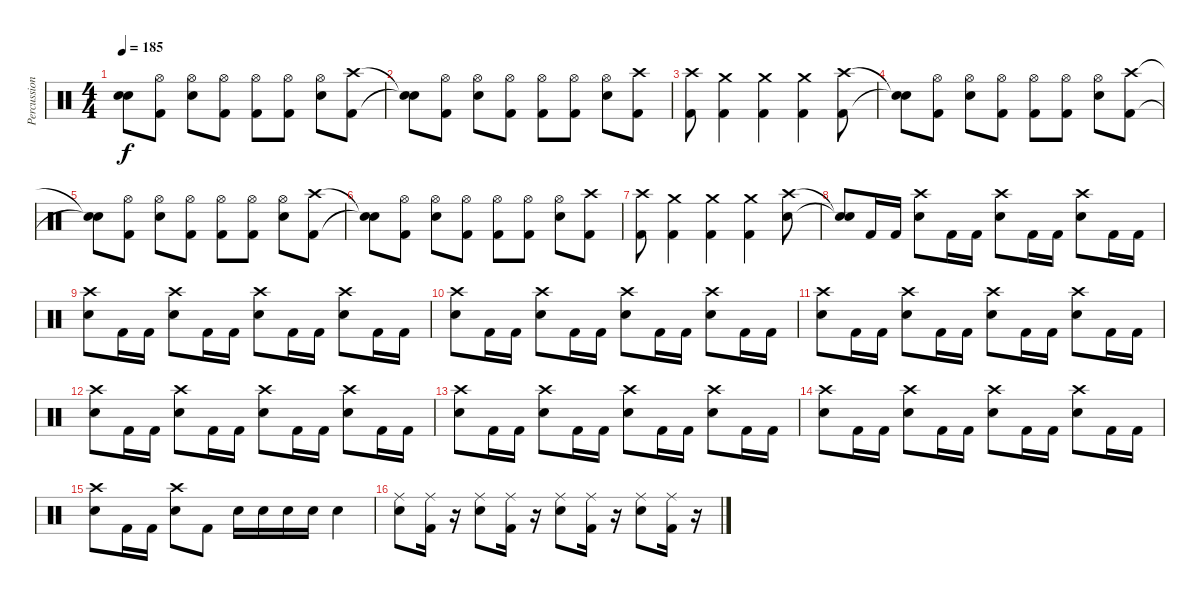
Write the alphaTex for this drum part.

\track ("Percussion" "Percussion") {instrument percussion}
\staff {score}
\articulation defaults
\ts (4 4)
\tempo 185
\clef neutral
\ks c
("Snare (hit)"{t} "Snare (hit)"{t}).8{dy f} ("Hi-Hat (open)" "Kick (hit) 2").8 ("Hi-Hat (open)" "Electric Snare (hit)").8 ("Hi-Hat (open)" "Kick (hit) 2").8 ("Hi-Hat (open)" "Kick (hit) 2").8 ("Hi-Hat (open)" "Kick (hit) 2").8 ("Hi-Hat (open)" "Electric Snare (hit)").8 ("Crash high (hit)" "Kick (hit) 2").8 |
("Snare (hit)"{t} "Snare (hit)"{t}).8 ("Hi-Hat (open)" "Kick (hit) 2").8 ("Hi-Hat (open)" "Electric Snare (hit)").8 ("Hi-Hat (open)" "Kick (hit) 2").8 ("Hi-Hat (open)" "Kick (hit) 2").8 ("Hi-Hat (open)" "Kick (hit) 2").8 ("Hi-Hat (open)" "Electric Snare (hit)").8 ("Crash high (hit)" "Kick (hit) 2").8 |
("Crash high (hit)" "Kick (hit) 2").8 ("Crash medium (hit)" "Kick (hit) 2").4 ("Crash medium (hit)" "Kick (hit) 2").4 ("Crash medium (hit)" "Kick (hit) 2").4 ("Crash high (hit)" "Kick (hit) 2").8 |
("Snare (hit)"{t} "Snare (hit)"{t}).8 ("Hi-Hat (open)" "Kick (hit) 2").8 ("Hi-Hat (open)" "Electric Snare (hit)").8 ("Hi-Hat (open)" "Kick (hit) 2").8 ("Hi-Hat (open)" "Kick (hit) 2").8 ("Hi-Hat (open)" "Kick (hit) 2").8 ("Hi-Hat (open)" "Electric Snare (hit)").8 ("Crash high (hit)" "Kick (hit) 2").8 |
("Snare (hit)"{t} "Snare (hit)"{t}).8 ("Hi-Hat (open)" "Kick (hit) 2").8 ("Hi-Hat (open)" "Electric Snare (hit)").8 ("Hi-Hat (open)" "Kick (hit) 2").8 ("Hi-Hat (open)" "Kick (hit) 2").8 ("Hi-Hat (open)" "Kick (hit) 2").8 ("Hi-Hat (open)" "Electric Snare (hit)").8 ("Crash high (hit)" "Kick (hit) 2").8 |
("Snare (hit)"{t} "Snare (hit)"{t}).8 ("Hi-Hat (open)" "Kick (hit) 2").8 ("Hi-Hat (open)" "Electric Snare (hit)").8 ("Hi-Hat (open)" "Kick (hit) 2").8 ("Hi-Hat (open)" "Kick (hit) 2").8 ("Hi-Hat (open)" "Kick (hit) 2").8 ("Hi-Hat (open)" "Electric Snare (hit)").8 ("Crash high (hit)" "Kick (hit) 2").8 |
("Crash high (hit)" "Kick (hit) 2").8 ("Crash medium (hit)" "Kick (hit) 2").4 ("Crash medium (hit)" "Kick (hit) 2").4 ("Crash medium (hit)" "Kick (hit) 2").4 ("Crash high (hit)" "Electric Snare (hit)").8 |
("Snare (hit)"{t} "Snare (hit)"{t}).8 "Kick (hit) 2".16 "Kick (hit) 2".16 ("Crash high (hit)" "Electric Snare (hit)").8 "Kick (hit) 2".16 "Kick (hit) 2".16 ("Crash high (hit)" "Electric Snare (hit)").8 "Kick (hit) 2".16 "Kick (hit) 2".16 ("Crash high (hit)" "Electric Snare (hit)").8 "Kick (hit) 2".16 "Kick (hit) 2".16 |
("Crash high (hit)" "Electric Snare (hit)").8 "Kick (hit) 2".16 "Kick (hit) 2".16 ("Crash high (hit)" "Electric Snare (hit)").8 "Kick (hit) 2".16 "Kick (hit) 2".16 ("Crash high (hit)" "Electric Snare (hit)").8 "Kick (hit) 2".16 "Kick (hit) 2".16 ("Crash high (hit)" "Electric Snare (hit)").8 "Kick (hit) 2".16 "Kick (hit) 2".16 |
("Crash high (hit)" "Electric Snare (hit)").8 "Kick (hit) 2".16 "Kick (hit) 2".16 ("Crash high (hit)" "Electric Snare (hit)").8 "Kick (hit) 2".16 "Kick (hit) 2".16 ("Crash high (hit)" "Electric Snare (hit)").8 "Kick (hit) 2".16 "Kick (hit) 2".16 ("Crash high (hit)" "Electric Snare (hit)").8 "Kick (hit) 2".16 "Kick (hit) 2".16 |
("Crash high (hit)" "Electric Snare (hit)").8 "Kick (hit) 2".16 "Kick (hit) 2".16 ("Crash high (hit)" "Electric Snare (hit)").8 "Kick (hit) 2".16 "Kick (hit) 2".16 ("Crash high (hit)" "Electric Snare (hit)").8 "Kick (hit) 2".16 "Kick (hit) 2".16 ("Crash high (hit)" "Electric Snare (hit)").8 "Kick (hit) 2".16 "Kick (hit) 2".16 |
("Crash high (hit)" "Electric Snare (hit)").8 "Kick (hit) 2".16 "Kick (hit) 2".16 ("Crash high (hit)" "Electric Snare (hit)").8 "Kick (hit) 2".16 "Kick (hit) 2".16 ("Crash high (hit)" "Electric Snare (hit)").8 "Kick (hit) 2".16 "Kick (hit) 2".16 ("Crash high (hit)" "Electric Snare (hit)").8 "Kick (hit) 2".16 "Kick (hit) 2".16 |
("Crash high (hit)" "Electric Snare (hit)").8 "Kick (hit) 2".16 "Kick (hit) 2".16 ("Crash high (hit)" "Electric Snare (hit)").8 "Kick (hit) 2".16 "Kick (hit) 2".16 ("Crash high (hit)" "Electric Snare (hit)").8 "Kick (hit) 2".16 "Kick (hit) 2".16 ("Crash high (hit)" "Electric Snare (hit)").8 "Kick (hit) 2".16 "Kick (hit) 2".16 |
("Crash high (hit)" "Electric Snare (hit)").8 "Kick (hit) 2".16 "Kick (hit) 2".16 ("Crash high (hit)" "Electric Snare (hit)").8 "Kick (hit) 2".16 "Kick (hit) 2".16 ("Crash high (hit)" "Electric Snare (hit)").8 "Kick (hit) 2".16 "Kick (hit) 2".16 ("Crash high (hit)" "Electric Snare (hit)").8 "Kick (hit) 2".16 "Kick (hit) 2".16 |
("Crash high (hit)" "Electric Snare (hit)").8 "Kick (hit) 2".16 "Kick (hit) 2".16 ("Crash high (hit)" "Electric Snare (hit)").8 "Kick (hit) 2".8 "Electric Snare (hit)".16 "Electric Snare (hit)".16 "Electric Snare (hit)".16 "Electric Snare (hit)".16 "Electric Snare (hit)".4 |
("Ride (middle)" "Electric Snare (hit)").8 ("Ride (middle)" "Kick (hit) 2").16 r.16 ("Ride (middle)" "Electric Snare (hit)").8 ("Ride (middle)" "Kick (hit) 2").16 r.16 ("Ride (middle)" "Electric Snare (hit)").8 ("Ride (middle)" "Kick (hit) 2").16 r.16 ("Ride (middle)" "Electric Snare (hit)").8 ("Ride (middle)" "Kick (hit) 2").16 r.16
